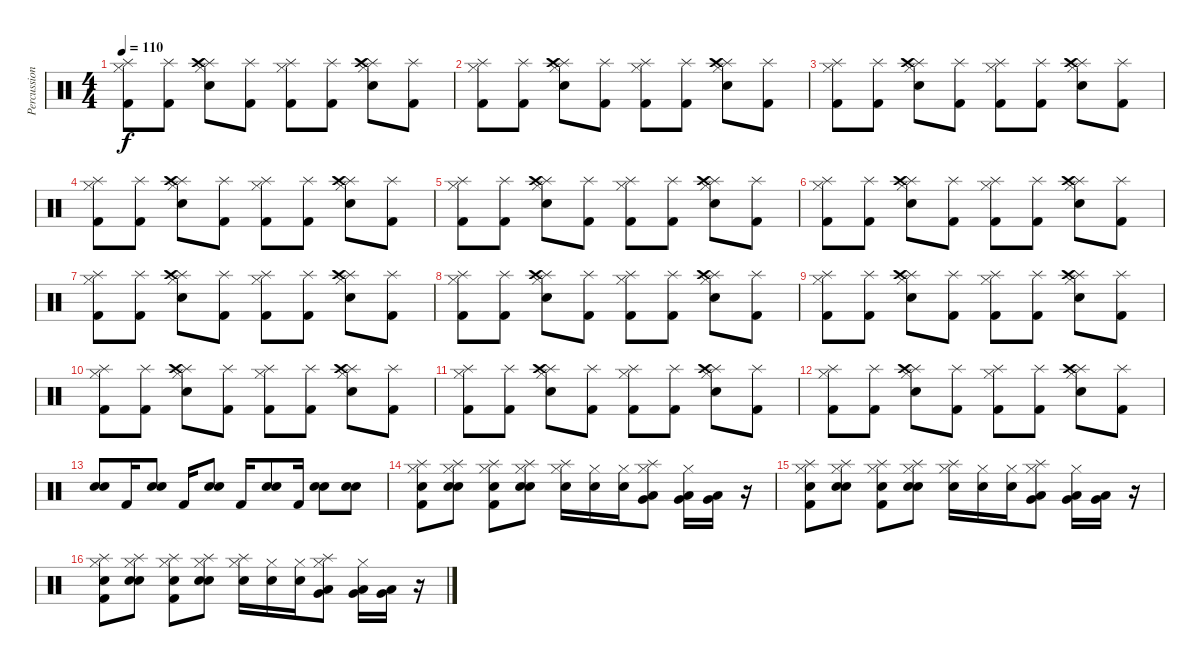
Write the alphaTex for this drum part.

\track ("Percussion" "Percussion") {instrument percussion}
\staff {score}
\articulation defaults
\ts (4 4)
\tempo 110
\clef neutral
\ks c
("Hi-Hat (closed)" "Splash (hit)" "Kick (hit) 2").8{dy f} ("Splash (hit)" "Kick (hit) 2").8 ("Hi-Hat (closed)" "Splash (hit)" "Electric Snare (hit)" "Crash high (hit)").8 ("Splash (hit)" "Kick (hit) 2").8 ("Hi-Hat (closed)" "Splash (hit)" "Kick (hit) 2").8 ("Splash (hit)" "Kick (hit) 2").8 ("Hi-Hat (closed)" "Splash (hit)" "Electric Snare (hit)" "Crash high (hit)").8 ("Splash (hit)" "Kick (hit) 2").8 |
("Hi-Hat (closed)" "Splash (hit)" "Kick (hit) 2").8 ("Splash (hit)" "Kick (hit) 2").8 ("Hi-Hat (closed)" "Splash (hit)" "Electric Snare (hit)" "Crash high (hit)").8 ("Splash (hit)" "Kick (hit) 2").8 ("Hi-Hat (closed)" "Splash (hit)" "Kick (hit) 2").8 ("Splash (hit)" "Kick (hit) 2").8 ("Hi-Hat (closed)" "Splash (hit)" "Electric Snare (hit)" "Crash high (hit)").8 ("Splash (hit)" "Kick (hit) 2").8 |
("Hi-Hat (closed)" "Splash (hit)" "Kick (hit) 2").8 ("Splash (hit)" "Kick (hit) 2").8 ("Hi-Hat (closed)" "Splash (hit)" "Electric Snare (hit)" "Crash high (hit)").8 ("Splash (hit)" "Kick (hit) 2").8 ("Hi-Hat (closed)" "Splash (hit)" "Kick (hit) 2").8 ("Splash (hit)" "Kick (hit) 2").8 ("Hi-Hat (closed)" "Splash (hit)" "Electric Snare (hit)" "Crash high (hit)").8 ("Splash (hit)" "Kick (hit) 2").8 |
("Hi-Hat (closed)" "Splash (hit)" "Kick (hit) 2").8 ("Splash (hit)" "Kick (hit) 2").8 ("Hi-Hat (closed)" "Splash (hit)" "Electric Snare (hit)" "Crash high (hit)").8 ("Splash (hit)" "Kick (hit) 2").8 ("Hi-Hat (closed)" "Splash (hit)" "Kick (hit) 2").8 ("Splash (hit)" "Kick (hit) 2").8 ("Hi-Hat (closed)" "Splash (hit)" "Electric Snare (hit)" "Crash high (hit)").8 ("Splash (hit)" "Kick (hit) 2").8 |
("Hi-Hat (closed)" "Splash (hit)" "Kick (hit) 2").8 ("Splash (hit)" "Kick (hit) 2").8 ("Hi-Hat (closed)" "Splash (hit)" "Electric Snare (hit)" "Crash high (hit)").8 ("Splash (hit)" "Kick (hit) 2").8 ("Hi-Hat (closed)" "Splash (hit)" "Kick (hit) 2").8 ("Splash (hit)" "Kick (hit) 2").8 ("Hi-Hat (closed)" "Splash (hit)" "Electric Snare (hit)" "Crash high (hit)").8 ("Splash (hit)" "Kick (hit) 2").8 |
("Hi-Hat (closed)" "Splash (hit)" "Kick (hit) 2").8 ("Splash (hit)" "Kick (hit) 2").8 ("Hi-Hat (closed)" "Splash (hit)" "Electric Snare (hit)" "Crash high (hit)").8 ("Splash (hit)" "Kick (hit) 2").8 ("Hi-Hat (closed)" "Splash (hit)" "Kick (hit) 2").8 ("Splash (hit)" "Kick (hit) 2").8 ("Hi-Hat (closed)" "Splash (hit)" "Electric Snare (hit)" "Crash high (hit)").8 ("Splash (hit)" "Kick (hit) 2").8 |
("Hi-Hat (closed)" "Splash (hit)" "Kick (hit) 2").8 ("Splash (hit)" "Kick (hit) 2").8 ("Hi-Hat (closed)" "Splash (hit)" "Electric Snare (hit)" "Crash high (hit)").8 ("Splash (hit)" "Kick (hit) 2").8 ("Hi-Hat (closed)" "Splash (hit)" "Kick (hit) 2").8 ("Splash (hit)" "Kick (hit) 2").8 ("Hi-Hat (closed)" "Splash (hit)" "Electric Snare (hit)" "Crash high (hit)").8 ("Splash (hit)" "Kick (hit) 2").8 |
("Hi-Hat (closed)" "Splash (hit)" "Kick (hit) 2").8 ("Splash (hit)" "Kick (hit) 2").8 ("Hi-Hat (closed)" "Splash (hit)" "Electric Snare (hit)" "Crash high (hit)").8 ("Splash (hit)" "Kick (hit) 2").8 ("Hi-Hat (closed)" "Splash (hit)" "Kick (hit) 2").8 ("Splash (hit)" "Kick (hit) 2").8 ("Hi-Hat (closed)" "Splash (hit)" "Electric Snare (hit)" "Crash high (hit)").8 ("Splash (hit)" "Kick (hit) 2").8 |
("Hi-Hat (closed)" "Splash (hit)" "Kick (hit) 2").8 ("Splash (hit)" "Kick (hit) 2").8 ("Hi-Hat (closed)" "Splash (hit)" "Electric Snare (hit)" "Crash high (hit)").8 ("Splash (hit)" "Kick (hit) 2").8 ("Hi-Hat (closed)" "Splash (hit)" "Kick (hit) 2").8 ("Splash (hit)" "Kick (hit) 2").8 ("Hi-Hat (closed)" "Splash (hit)" "Electric Snare (hit)" "Crash high (hit)").8 ("Splash (hit)" "Kick (hit) 2").8 |
("Hi-Hat (closed)" "Splash (hit)" "Kick (hit) 2").8 ("Splash (hit)" "Kick (hit) 2").8 ("Hi-Hat (closed)" "Splash (hit)" "Electric Snare (hit)" "Crash high (hit)").8 ("Splash (hit)" "Kick (hit) 2").8 ("Hi-Hat (closed)" "Splash (hit)" "Kick (hit) 2").8 ("Splash (hit)" "Kick (hit) 2").8 ("Hi-Hat (closed)" "Splash (hit)" "Electric Snare (hit)" "Crash high (hit)").8 ("Splash (hit)" "Kick (hit) 2").8 |
("Hi-Hat (closed)" "Splash (hit)" "Kick (hit) 2").8 ("Splash (hit)" "Kick (hit) 2").8 ("Hi-Hat (closed)" "Splash (hit)" "Electric Snare (hit)" "Crash high (hit)").8 ("Splash (hit)" "Kick (hit) 2").8 ("Hi-Hat (closed)" "Splash (hit)" "Kick (hit) 2").8 ("Splash (hit)" "Kick (hit) 2").8 ("Hi-Hat (closed)" "Splash (hit)" "Electric Snare (hit)" "Crash high (hit)").8 ("Splash (hit)" "Kick (hit) 2").8 |
("Hi-Hat (closed)" "Splash (hit)" "Kick (hit) 2").8 ("Splash (hit)" "Kick (hit) 2").8 ("Hi-Hat (closed)" "Splash (hit)" "Electric Snare (hit)" "Crash high (hit)").8 ("Splash (hit)" "Kick (hit) 2").8 ("Hi-Hat (closed)" "Splash (hit)" "Kick (hit) 2").8 ("Splash (hit)" "Kick (hit) 2").8 ("Hi-Hat (closed)" "Splash (hit)" "Electric Snare (hit)" "Crash high (hit)").8 ("Splash (hit)" "Kick (hit) 2").8 |
("Electric Snare (hit)" "Electric Snare (hit)").8 "Kick (hit) 2".16 ("Electric Snare (hit)" "Electric Snare (hit)").8 "Kick (hit) 2".16 ("Electric Snare (hit)" "Electric Snare (hit)").8 "Kick (hit) 2".16 ("Electric Snare (hit)" "Electric Snare (hit)").8 "Kick (hit) 2".16 ("Electric Snare (hit)" "Electric Snare (hit)").8 ("Electric Snare (hit)" "Electric Snare (hit)").8 |
("Hi-Hat (closed)" "Splash (hit)" "Electric Snare (hit)" "Kick (hit) 2").8 ("Hi-Hat (closed)" "Splash (hit)" "Electric Snare (hit)" "Electric Snare (hit)").8 ("Hi-Hat (closed)" "Splash (hit)" "Electric Snare (hit)" "Kick (hit) 2").8 ("Hi-Hat (closed)" "Splash (hit)" "Electric Snare (hit)" "Electric Snare (hit)").8 ("Hi-Hat (closed)" "Splash (hit)" "Electric Snare (hit)").16 ("Hi-Hat (closed)" "Electric Snare (hit)").16 ("Hi-Hat (closed)" "Electric Snare (hit)").16 ("Hi-Hat (closed)" "Splash (hit)" "Very Low Tom (hit)" "Low Tom (hit)").8 ("Hi-Hat (closed)" "Very Low Tom (hit)" "Low Tom (hit)").16 ("Very Low Tom (hit)" "Low Tom (hit)").16 r.16 |
("Hi-Hat (closed)" "Splash (hit)" "Electric Snare (hit)" "Kick (hit) 2").8 ("Hi-Hat (closed)" "Splash (hit)" "Electric Snare (hit)" "Electric Snare (hit)").8 ("Hi-Hat (closed)" "Splash (hit)" "Electric Snare (hit)" "Kick (hit) 2").8 ("Hi-Hat (closed)" "Splash (hit)" "Electric Snare (hit)" "Electric Snare (hit)").8 ("Hi-Hat (closed)" "Splash (hit)" "Electric Snare (hit)").16 ("Hi-Hat (closed)" "Electric Snare (hit)").16 ("Hi-Hat (closed)" "Electric Snare (hit)").16 ("Hi-Hat (closed)" "Splash (hit)" "Very Low Tom (hit)" "Low Tom (hit)").8 ("Hi-Hat (closed)" "Very Low Tom (hit)" "Low Tom (hit)").16 ("Very Low Tom (hit)" "Low Tom (hit)").16 r.16 |
("Hi-Hat (closed)" "Splash (hit)" "Electric Snare (hit)" "Kick (hit) 2").8 ("Hi-Hat (closed)" "Splash (hit)" "Electric Snare (hit)" "Electric Snare (hit)").8 ("Hi-Hat (closed)" "Splash (hit)" "Electric Snare (hit)" "Kick (hit) 2").8 ("Hi-Hat (closed)" "Splash (hit)" "Electric Snare (hit)" "Electric Snare (hit)").8 ("Hi-Hat (closed)" "Splash (hit)" "Electric Snare (hit)").16 ("Hi-Hat (closed)" "Electric Snare (hit)").16 ("Hi-Hat (closed)" "Electric Snare (hit)").16 ("Hi-Hat (closed)" "Splash (hit)" "Very Low Tom (hit)" "Low Tom (hit)").8 ("Hi-Hat (closed)" "Very Low Tom (hit)" "Low Tom (hit)").16 ("Very Low Tom (hit)" "Low Tom (hit)").16 r.16
